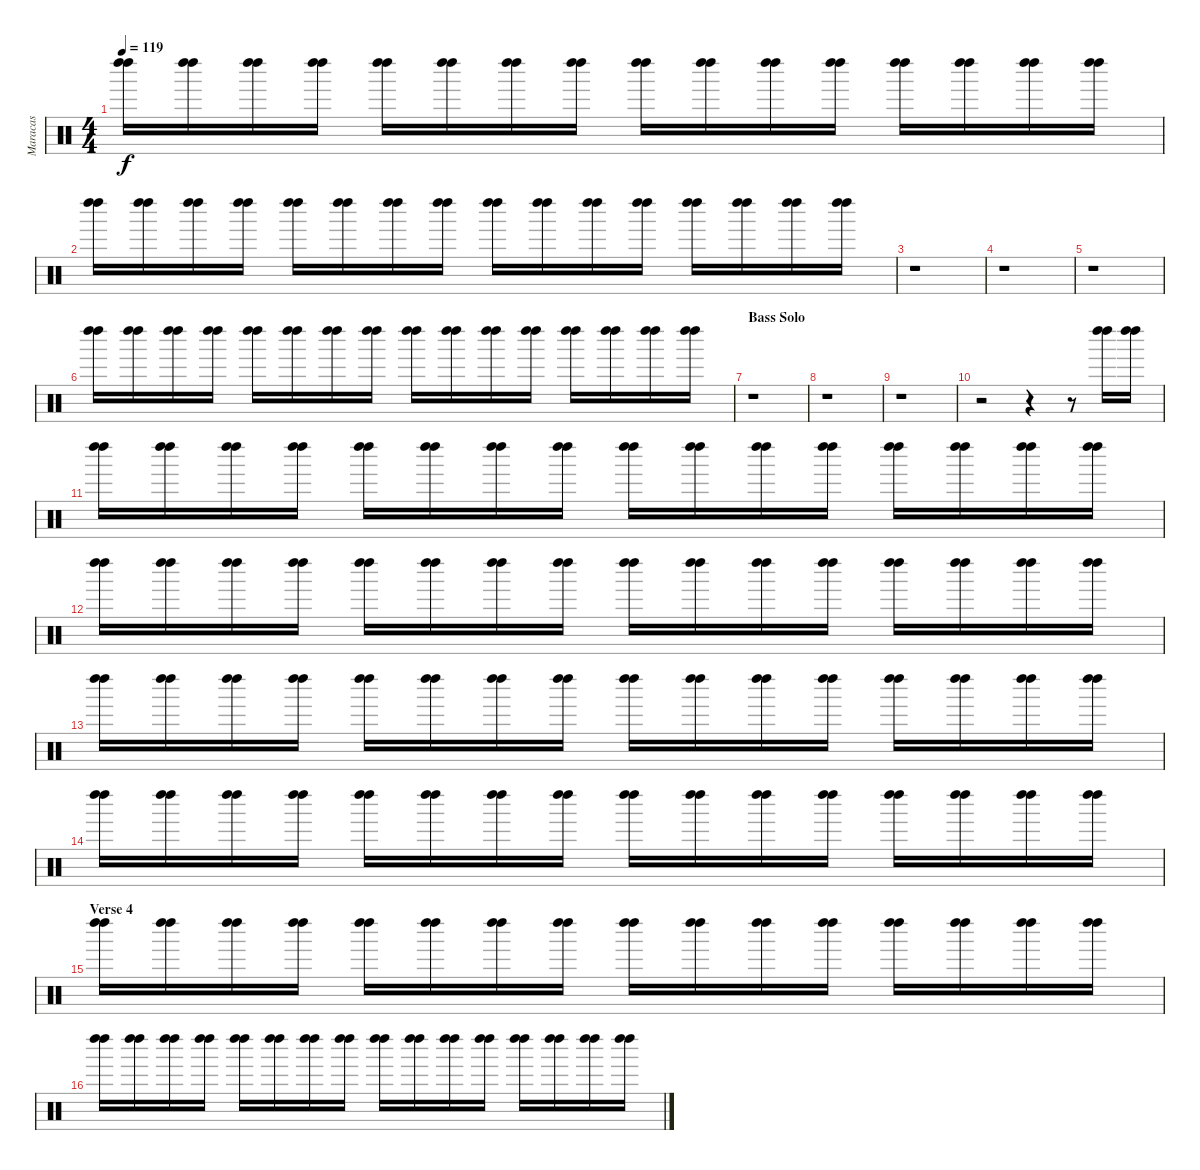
\track ("Maracas" "Maracas") {instrument percussion}
\staff {score}
\articulation defaults
\ts (4 4)
\tempo 119
\clef neutral
\ks c
("Left Maraca (hit)" "Left Maraca (hit)").16{dy f} ("Left Maraca (hit)" "Left Maraca (hit)").16 ("Left Maraca (hit)" "Left Maraca (hit)").16 ("Left Maraca (hit)" "Left Maraca (hit)").16 ("Left Maraca (hit)" "Left Maraca (hit)").16 ("Left Maraca (hit)" "Left Maraca (hit)").16 ("Left Maraca (hit)" "Left Maraca (hit)").16 ("Left Maraca (hit)" "Left Maraca (hit)").16 ("Left Maraca (hit)" "Left Maraca (hit)").16 ("Left Maraca (hit)" "Left Maraca (hit)").16 ("Left Maraca (hit)" "Left Maraca (hit)").16 ("Left Maraca (hit)" "Left Maraca (hit)").16 ("Left Maraca (hit)" "Left Maraca (hit)").16 ("Left Maraca (hit)" "Left Maraca (hit)").16 ("Left Maraca (hit)" "Left Maraca (hit)").16 ("Left Maraca (hit)" "Left Maraca (hit)").16 |
("Left Maraca (hit)" "Left Maraca (hit)").16 ("Left Maraca (hit)" "Left Maraca (hit)").16 ("Left Maraca (hit)" "Left Maraca (hit)").16 ("Left Maraca (hit)" "Left Maraca (hit)").16 ("Left Maraca (hit)" "Left Maraca (hit)").16 ("Left Maraca (hit)" "Left Maraca (hit)").16 ("Left Maraca (hit)" "Left Maraca (hit)").16 ("Left Maraca (hit)" "Left Maraca (hit)").16 ("Left Maraca (hit)" "Left Maraca (hit)").16 ("Left Maraca (hit)" "Left Maraca (hit)").16 ("Left Maraca (hit)" "Left Maraca (hit)").16 ("Left Maraca (hit)" "Left Maraca (hit)").16 ("Left Maraca (hit)" "Left Maraca (hit)").16 ("Left Maraca (hit)" "Left Maraca (hit)").16 ("Left Maraca (hit)" "Left Maraca (hit)").16 ("Left Maraca (hit)" "Left Maraca (hit)").16 |
r.1 |
r.1 |
r.1 |
("Left Maraca (hit)" "Left Maraca (hit)").16 ("Left Maraca (hit)" "Left Maraca (hit)").16 ("Left Maraca (hit)" "Left Maraca (hit)").16 ("Left Maraca (hit)" "Left Maraca (hit)").16 ("Left Maraca (hit)" "Left Maraca (hit)").16 ("Left Maraca (hit)" "Left Maraca (hit)").16 ("Left Maraca (hit)" "Left Maraca (hit)").16 ("Left Maraca (hit)" "Left Maraca (hit)").16 ("Left Maraca (hit)" "Left Maraca (hit)").16 ("Left Maraca (hit)" "Left Maraca (hit)").16 ("Left Maraca (hit)" "Left Maraca (hit)").16 ("Left Maraca (hit)" "Left Maraca (hit)").16 ("Left Maraca (hit)" "Left Maraca (hit)").16 ("Left Maraca (hit)" "Left Maraca (hit)").16 ("Left Maraca (hit)" "Left Maraca (hit)").16 ("Left Maraca (hit)" "Left Maraca (hit)").16 |
\section ("" "Bass Solo")
r.1 |
r.1 |
r.1 |
r.2 r.4 r.8 ("Left Maraca (hit)" "Left Maraca (hit)").16 ("Left Maraca (hit)" "Left Maraca (hit)").16 |
("Left Maraca (hit)" "Left Maraca (hit)").16 ("Left Maraca (hit)" "Left Maraca (hit)").16 ("Left Maraca (hit)" "Left Maraca (hit)").16 ("Left Maraca (hit)" "Left Maraca (hit)").16 ("Left Maraca (hit)" "Left Maraca (hit)").16 ("Left Maraca (hit)" "Left Maraca (hit)").16 ("Left Maraca (hit)" "Left Maraca (hit)").16 ("Left Maraca (hit)" "Left Maraca (hit)").16 ("Left Maraca (hit)" "Left Maraca (hit)").16 ("Left Maraca (hit)" "Left Maraca (hit)").16 ("Left Maraca (hit)" "Left Maraca (hit)").16 ("Left Maraca (hit)" "Left Maraca (hit)").16 ("Left Maraca (hit)" "Left Maraca (hit)").16 ("Left Maraca (hit)" "Left Maraca (hit)").16 ("Left Maraca (hit)" "Left Maraca (hit)").16 ("Left Maraca (hit)" "Left Maraca (hit)").16 |
("Left Maraca (hit)" "Left Maraca (hit)").16 ("Left Maraca (hit)" "Left Maraca (hit)").16 ("Left Maraca (hit)" "Left Maraca (hit)").16 ("Left Maraca (hit)" "Left Maraca (hit)").16 ("Left Maraca (hit)" "Left Maraca (hit)").16 ("Left Maraca (hit)" "Left Maraca (hit)").16 ("Left Maraca (hit)" "Left Maraca (hit)").16 ("Left Maraca (hit)" "Left Maraca (hit)").16 ("Left Maraca (hit)" "Left Maraca (hit)").16 ("Left Maraca (hit)" "Left Maraca (hit)").16 ("Left Maraca (hit)" "Left Maraca (hit)").16 ("Left Maraca (hit)" "Left Maraca (hit)").16 ("Left Maraca (hit)" "Left Maraca (hit)").16 ("Left Maraca (hit)" "Left Maraca (hit)").16 ("Left Maraca (hit)" "Left Maraca (hit)").16 ("Left Maraca (hit)" "Left Maraca (hit)").16 |
("Left Maraca (hit)" "Left Maraca (hit)").16 ("Left Maraca (hit)" "Left Maraca (hit)").16 ("Left Maraca (hit)" "Left Maraca (hit)").16 ("Left Maraca (hit)" "Left Maraca (hit)").16 ("Left Maraca (hit)" "Left Maraca (hit)").16 ("Left Maraca (hit)" "Left Maraca (hit)").16 ("Left Maraca (hit)" "Left Maraca (hit)").16 ("Left Maraca (hit)" "Left Maraca (hit)").16 ("Left Maraca (hit)" "Left Maraca (hit)").16 ("Left Maraca (hit)" "Left Maraca (hit)").16 ("Left Maraca (hit)" "Left Maraca (hit)").16 ("Left Maraca (hit)" "Left Maraca (hit)").16 ("Left Maraca (hit)" "Left Maraca (hit)").16 ("Left Maraca (hit)" "Left Maraca (hit)").16 ("Left Maraca (hit)" "Left Maraca (hit)").16 ("Left Maraca (hit)" "Left Maraca (hit)").16 |
("Left Maraca (hit)" "Left Maraca (hit)").16 ("Left Maraca (hit)" "Left Maraca (hit)").16 ("Left Maraca (hit)" "Left Maraca (hit)").16 ("Left Maraca (hit)" "Left Maraca (hit)").16 ("Left Maraca (hit)" "Left Maraca (hit)").16 ("Left Maraca (hit)" "Left Maraca (hit)").16 ("Left Maraca (hit)" "Left Maraca (hit)").16 ("Left Maraca (hit)" "Left Maraca (hit)").16 ("Left Maraca (hit)" "Left Maraca (hit)").16 ("Left Maraca (hit)" "Left Maraca (hit)").16 ("Left Maraca (hit)" "Left Maraca (hit)").16 ("Left Maraca (hit)" "Left Maraca (hit)").16 ("Left Maraca (hit)" "Left Maraca (hit)").16 ("Left Maraca (hit)" "Left Maraca (hit)").16 ("Left Maraca (hit)" "Left Maraca (hit)").16 ("Left Maraca (hit)" "Left Maraca (hit)").16 |
\section ("" "Verse 4")
("Left Maraca (hit)" "Left Maraca (hit)").16 ("Left Maraca (hit)" "Left Maraca (hit)").16 ("Left Maraca (hit)" "Left Maraca (hit)").16 ("Left Maraca (hit)" "Left Maraca (hit)").16 ("Left Maraca (hit)" "Left Maraca (hit)").16 ("Left Maraca (hit)" "Left Maraca (hit)").16 ("Left Maraca (hit)" "Left Maraca (hit)").16 ("Left Maraca (hit)" "Left Maraca (hit)").16 ("Left Maraca (hit)" "Left Maraca (hit)").16 ("Left Maraca (hit)" "Left Maraca (hit)").16 ("Left Maraca (hit)" "Left Maraca (hit)").16 ("Left Maraca (hit)" "Left Maraca (hit)").16 ("Left Maraca (hit)" "Left Maraca (hit)").16 ("Left Maraca (hit)" "Left Maraca (hit)").16 ("Left Maraca (hit)" "Left Maraca (hit)").16 ("Left Maraca (hit)" "Left Maraca (hit)").16 |
("Left Maraca (hit)" "Left Maraca (hit)").16 ("Left Maraca (hit)" "Left Maraca (hit)").16 ("Left Maraca (hit)" "Left Maraca (hit)").16 ("Left Maraca (hit)" "Left Maraca (hit)").16 ("Left Maraca (hit)" "Left Maraca (hit)").16 ("Left Maraca (hit)" "Left Maraca (hit)").16 ("Left Maraca (hit)" "Left Maraca (hit)").16 ("Left Maraca (hit)" "Left Maraca (hit)").16 ("Left Maraca (hit)" "Left Maraca (hit)").16 ("Left Maraca (hit)" "Left Maraca (hit)").16 ("Left Maraca (hit)" "Left Maraca (hit)").16 ("Left Maraca (hit)" "Left Maraca (hit)").16 ("Left Maraca (hit)" "Left Maraca (hit)").16 ("Left Maraca (hit)" "Left Maraca (hit)").16 ("Left Maraca (hit)" "Left Maraca (hit)").16 ("Left Maraca (hit)" "Left Maraca (hit)").16
